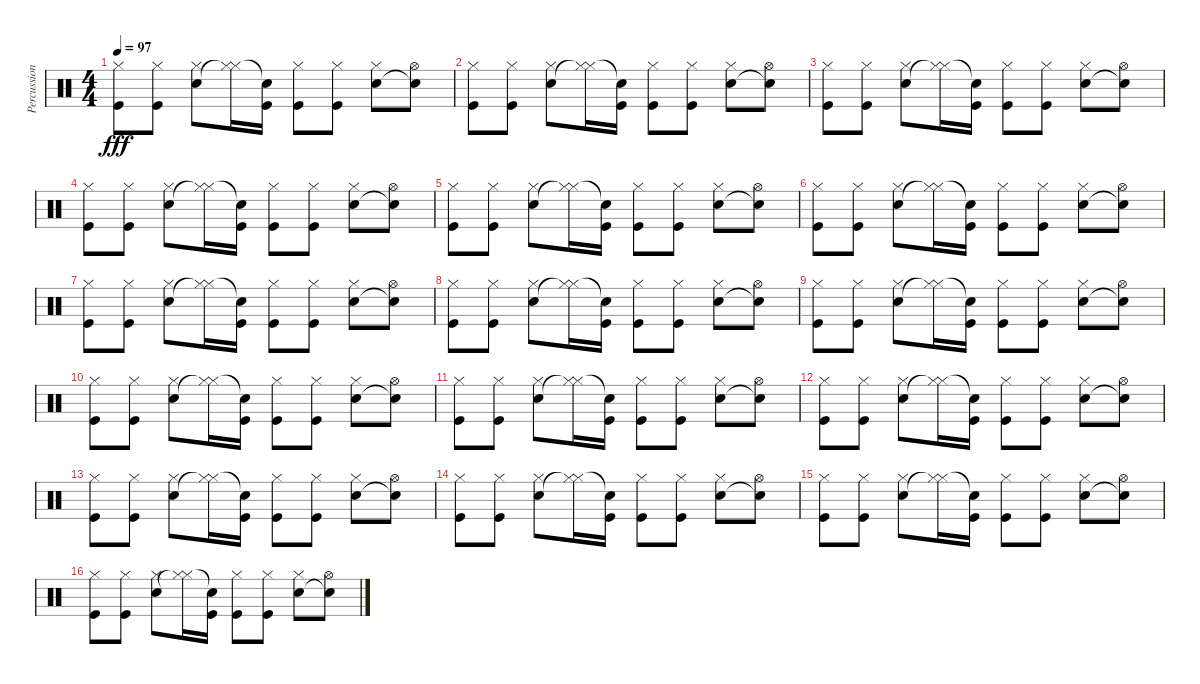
\track ("Percussions" "Percussion") {instrument percussion}
\staff {score}
\articulation defaults
\ts (4 4)
\tempo 97
\clef neutral
\ks c
("Kick (hit)" "Hi-Hat (closed)").8{dy fff} ("Kick (hit)" "Hi-Hat (closed)").8 ("Snare (hit) 2" "Hi-Hat (closed)").8 ("Hi-Hat (closed)"{t} "Hi-Hat (closed)").16 ("Kick (hit)" "Snare (hit)"{t}).16 ("Kick (hit)" "Hi-Hat (closed)").8 ("Kick (hit)" "Hi-Hat (closed)").8 ("Snare (hit) 2" "Hi-Hat (closed)").8 ("Snare (hit)"{t} "Hi-Hat (open)").8 |
("Kick (hit)" "Hi-Hat (closed)").8 ("Kick (hit)" "Hi-Hat (closed)").8 ("Snare (hit) 2" "Hi-Hat (closed)").8 ("Hi-Hat (closed)"{t} "Hi-Hat (closed)").16 ("Kick (hit)" "Snare (hit)"{t}).16 ("Kick (hit)" "Hi-Hat (closed)").8 ("Kick (hit)" "Hi-Hat (closed)").8 ("Snare (hit) 2" "Hi-Hat (closed)").8 ("Snare (hit)"{t} "Hi-Hat (open)").8 |
("Kick (hit)" "Hi-Hat (closed)").8 ("Kick (hit)" "Hi-Hat (closed)").8 ("Snare (hit) 2" "Hi-Hat (closed)").8 ("Hi-Hat (closed)"{t} "Hi-Hat (closed)").16 ("Kick (hit)" "Snare (hit)"{t}).16 ("Kick (hit)" "Hi-Hat (closed)").8 ("Kick (hit)" "Hi-Hat (closed)").8 ("Snare (hit) 2" "Hi-Hat (closed)").8 ("Snare (hit)"{t} "Hi-Hat (open)").8 |
("Kick (hit)" "Hi-Hat (closed)").8 ("Kick (hit)" "Hi-Hat (closed)").8 ("Snare (hit) 2" "Hi-Hat (closed)").8 ("Hi-Hat (closed)"{t} "Hi-Hat (closed)").16 ("Kick (hit)" "Snare (hit)"{t}).16 ("Kick (hit)" "Hi-Hat (closed)").8 ("Kick (hit)" "Hi-Hat (closed)").8 ("Snare (hit) 2" "Hi-Hat (closed)").8 ("Snare (hit)"{t} "Hi-Hat (open)").8 |
("Kick (hit)" "Hi-Hat (closed)").8 ("Kick (hit)" "Hi-Hat (closed)").8 ("Snare (hit) 2" "Hi-Hat (closed)").8 ("Hi-Hat (closed)"{t} "Hi-Hat (closed)").16 ("Kick (hit)" "Snare (hit)"{t}).16 ("Kick (hit)" "Hi-Hat (closed)").8 ("Kick (hit)" "Hi-Hat (closed)").8 ("Snare (hit) 2" "Hi-Hat (closed)").8 ("Snare (hit)"{t} "Hi-Hat (open)").8 |
("Kick (hit)" "Hi-Hat (closed)").8 ("Kick (hit)" "Hi-Hat (closed)").8 ("Snare (hit) 2" "Hi-Hat (closed)").8 ("Hi-Hat (closed)"{t} "Hi-Hat (closed)").16 ("Kick (hit)" "Snare (hit)"{t}).16 ("Kick (hit)" "Hi-Hat (closed)").8 ("Kick (hit)" "Hi-Hat (closed)").8 ("Snare (hit) 2" "Hi-Hat (closed)").8 ("Snare (hit)"{t} "Hi-Hat (open)").8 |
("Kick (hit)" "Hi-Hat (closed)").8 ("Kick (hit)" "Hi-Hat (closed)").8 ("Snare (hit) 2" "Hi-Hat (closed)").8 ("Hi-Hat (closed)"{t} "Hi-Hat (closed)").16 ("Kick (hit)" "Snare (hit)"{t}).16 ("Kick (hit)" "Hi-Hat (closed)").8 ("Kick (hit)" "Hi-Hat (closed)").8 ("Snare (hit) 2" "Hi-Hat (closed)").8 ("Snare (hit)"{t} "Hi-Hat (open)").8 |
("Kick (hit)" "Hi-Hat (closed)").8 ("Kick (hit)" "Hi-Hat (closed)").8 ("Snare (hit) 2" "Hi-Hat (closed)").8 ("Hi-Hat (closed)"{t} "Hi-Hat (closed)").16 ("Kick (hit)" "Snare (hit)"{t}).16 ("Kick (hit)" "Hi-Hat (closed)").8 ("Kick (hit)" "Hi-Hat (closed)").8 ("Snare (hit) 2" "Hi-Hat (closed)").8 ("Snare (hit)"{t} "Hi-Hat (open)").8 |
("Kick (hit)" "Hi-Hat (closed)").8 ("Kick (hit)" "Hi-Hat (closed)").8 ("Snare (hit) 2" "Hi-Hat (closed)").8 ("Hi-Hat (closed)"{t} "Hi-Hat (closed)").16 ("Kick (hit)" "Snare (hit)"{t}).16 ("Kick (hit)" "Hi-Hat (closed)").8 ("Kick (hit)" "Hi-Hat (closed)").8 ("Snare (hit) 2" "Hi-Hat (closed)").8 ("Snare (hit)"{t} "Hi-Hat (open)").8 |
("Kick (hit)" "Hi-Hat (closed)").8 ("Kick (hit)" "Hi-Hat (closed)").8 ("Snare (hit) 2" "Hi-Hat (closed)").8 ("Hi-Hat (closed)"{t} "Hi-Hat (closed)").16 ("Kick (hit)" "Snare (hit)"{t}).16 ("Kick (hit)" "Hi-Hat (closed)").8 ("Kick (hit)" "Hi-Hat (closed)").8 ("Snare (hit) 2" "Hi-Hat (closed)").8 ("Snare (hit)"{t} "Hi-Hat (open)").8 |
("Kick (hit)" "Hi-Hat (closed)").8 ("Kick (hit)" "Hi-Hat (closed)").8 ("Snare (hit) 2" "Hi-Hat (closed)").8 ("Hi-Hat (closed)"{t} "Hi-Hat (closed)").16 ("Kick (hit)" "Snare (hit)"{t}).16 ("Kick (hit)" "Hi-Hat (closed)").8 ("Kick (hit)" "Hi-Hat (closed)").8 ("Snare (hit) 2" "Hi-Hat (closed)").8 ("Snare (hit)"{t} "Hi-Hat (open)").8 |
("Kick (hit)" "Hi-Hat (closed)").8 ("Kick (hit)" "Hi-Hat (closed)").8 ("Snare (hit) 2" "Hi-Hat (closed)").8 ("Hi-Hat (closed)"{t} "Hi-Hat (closed)").16 ("Kick (hit)" "Snare (hit)"{t}).16 ("Kick (hit)" "Hi-Hat (closed)").8 ("Kick (hit)" "Hi-Hat (closed)").8 ("Snare (hit) 2" "Hi-Hat (closed)").8 ("Snare (hit)"{t} "Hi-Hat (open)").8 |
("Kick (hit)" "Hi-Hat (closed)").8 ("Kick (hit)" "Hi-Hat (closed)").8 ("Snare (hit) 2" "Hi-Hat (closed)").8 ("Hi-Hat (closed)"{t} "Hi-Hat (closed)").16 ("Kick (hit)" "Snare (hit)"{t}).16 ("Kick (hit)" "Hi-Hat (closed)").8 ("Kick (hit)" "Hi-Hat (closed)").8 ("Snare (hit) 2" "Hi-Hat (closed)").8 ("Snare (hit)"{t} "Hi-Hat (open)").8 |
("Kick (hit)" "Hi-Hat (closed)").8 ("Kick (hit)" "Hi-Hat (closed)").8 ("Snare (hit) 2" "Hi-Hat (closed)").8 ("Hi-Hat (closed)"{t} "Hi-Hat (closed)").16 ("Kick (hit)" "Snare (hit)"{t}).16 ("Kick (hit)" "Hi-Hat (closed)").8 ("Kick (hit)" "Hi-Hat (closed)").8 ("Snare (hit) 2" "Hi-Hat (closed)").8 ("Snare (hit)"{t} "Hi-Hat (open)").8 |
("Kick (hit)" "Hi-Hat (closed)").8 ("Kick (hit)" "Hi-Hat (closed)").8 ("Snare (hit) 2" "Hi-Hat (closed)").8 ("Hi-Hat (closed)"{t} "Hi-Hat (closed)").16 ("Kick (hit)" "Snare (hit)"{t}).16 ("Kick (hit)" "Hi-Hat (closed)").8 ("Kick (hit)" "Hi-Hat (closed)").8 ("Snare (hit) 2" "Hi-Hat (closed)").8 ("Snare (hit)"{t} "Hi-Hat (open)").8 |
("Kick (hit)" "Hi-Hat (closed)").8 ("Kick (hit)" "Hi-Hat (closed)").8 ("Snare (hit) 2" "Hi-Hat (closed)").8 ("Hi-Hat (closed)"{t} "Hi-Hat (closed)").16 ("Kick (hit)" "Snare (hit)"{t}).16 ("Kick (hit)" "Hi-Hat (closed)").8 ("Kick (hit)" "Hi-Hat (closed)").8 ("Snare (hit) 2" "Hi-Hat (closed)").8 ("Snare (hit)"{t} "Hi-Hat (open)").8
